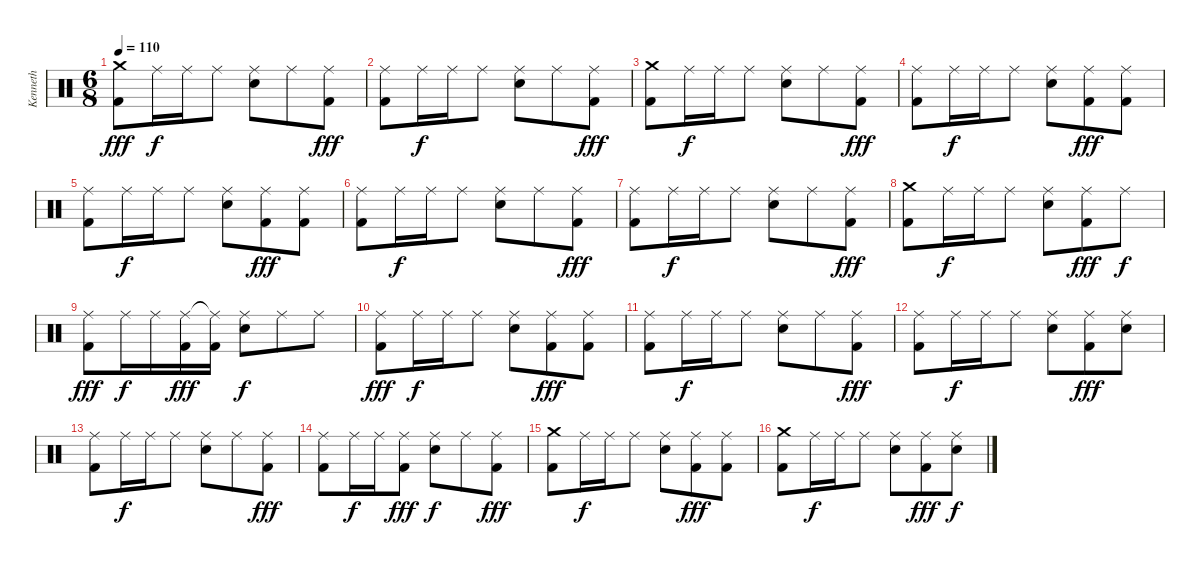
\track ("Kenneth" "Kenneth") {instrument percussion}
\staff {score}
\articulation defaults
\ts (6 8)
\tempo 110
\clef neutral
\ks c
("Crash medium (hit)" "Kick (hit) 2").8{dy fff} "Ride (middle)".16{dy f} "Ride (middle)".16 "Ride (middle)".8 ("Ride (middle)" "Snare (hit) 2").8 "Ride (middle)".8 ("Ride (middle)" "Kick (hit) 2").8{dy fff} |
("Ride (middle)" "Kick (hit) 2").8 "Ride (middle)".16{dy f} "Ride (middle)".16 "Ride (middle)".8 ("Ride (middle)" "Snare (hit) 2").8 "Ride (middle)".8 ("Ride (middle)" "Kick (hit) 2").8{dy fff} |
("Crash medium (hit)" "Kick (hit) 2").8 "Ride (middle)".16{dy f} "Ride (middle)".16 "Ride (middle)".8 ("Ride (middle)" "Snare (hit) 2").8 "Ride (middle)".8 ("Ride (middle)" "Kick (hit) 2").8{dy fff} |
("Ride (middle)" "Kick (hit) 2").8 "Ride (middle)".16{dy f} "Ride (middle)".16 "Ride (middle)".8 ("Ride (middle)" "Snare (hit) 2").8 ("Ride (middle)" "Kick (hit) 2").8{dy fff} ("Ride (middle)" "Kick (hit) 2").8 |
("Ride (middle)" "Kick (hit) 2").8 "Ride (middle)".16{dy f} "Ride (middle)".16 "Ride (middle)".8 ("Ride (middle)" "Snare (hit) 2").8 ("Ride (middle)" "Kick (hit) 2").8{dy fff} ("Ride (middle)" "Kick (hit) 2").8 |
("Ride (middle)" "Kick (hit) 2").8 "Ride (middle)".16{dy f} "Ride (middle)".16 "Ride (middle)".8 ("Ride (middle)" "Snare (hit) 2").8 "Ride (middle)".8 ("Ride (middle)" "Kick (hit) 2").8{dy fff} |
("Ride (middle)" "Kick (hit) 2").8 "Ride (middle)".16{dy f} "Ride (middle)".16 "Ride (middle)".8 ("Ride (middle)" "Snare (hit) 2").8 "Ride (middle)".8 ("Ride (middle)" "Kick (hit) 2").8{dy fff} |
("Crash medium (hit)" "Kick (hit) 2").8 "Ride (middle)".16{dy f} "Ride (middle)".16 "Ride (middle)".8 ("Ride (middle)" "Snare (hit) 2").8 ("Ride (middle)" "Kick (hit) 2").8{dy fff} "Ride (middle)".8{dy f} |
("Ride (middle)" "Kick (hit) 2").8{dy fff} "Ride (middle)".16{dy f} "Ride (middle)".16 ("Ride (middle)" "Kick (hit) 2").16{dy fff} ("Ride (middle)"{t} "Kick (hit) 2").16 ("Ride (middle)" "Snare (hit) 2").8{dy f} "Ride (middle)".8 "Ride (middle)".8 |
("Ride (middle)" "Kick (hit) 2").8{dy fff} "Ride (middle)".16{dy f} "Ride (middle)".16 "Ride (middle)".8 ("Ride (middle)" "Snare (hit) 2").8 ("Ride (middle)" "Kick (hit) 2").8{dy fff} ("Ride (middle)" "Kick (hit) 2").8 |
("Ride (middle)" "Kick (hit) 2").8 "Ride (middle)".16{dy f} "Ride (middle)".16 "Ride (middle)".8 ("Ride (middle)" "Snare (hit) 2").8 "Ride (middle)".8 ("Ride (middle)" "Kick (hit) 2").8{dy fff} |
("Ride (middle)" "Kick (hit) 2").8 "Ride (middle)".16{dy f} "Ride (middle)".16 "Ride (middle)".8 ("Ride (middle)" "Snare (hit) 2").8 ("Ride (middle)" "Kick (hit) 2").8{dy fff} ("Ride (middle)" "Snare (hit) 2").8 |
("Ride (middle)" "Kick (hit) 2").8 "Ride (middle)".16{dy f} "Ride (middle)".16 "Ride (middle)".8 ("Ride (middle)" "Snare (hit) 2").8 "Ride (middle)".8 ("Ride (middle)" "Kick (hit) 2").8{dy fff} |
("Ride (middle)" "Kick (hit) 2").8 "Ride (middle)".16{dy f} "Ride (middle)".16 ("Ride (middle)" "Kick (hit) 2").8{dy fff} ("Ride (middle)" "Snare (hit) 2").8{dy f} "Ride (middle)".8 ("Ride (middle)" "Kick (hit) 2").8{dy fff} |
("Crash medium (hit)" "Kick (hit) 2").8 "Ride (middle)".16{dy f} "Ride (middle)".16 "Ride (middle)".8 ("Ride (middle)" "Snare (hit) 2").8 ("Ride (middle)" "Kick (hit) 2").8{dy fff} ("Ride (middle)" "Kick (hit) 2").8 |
("Crash medium (hit)" "Kick (hit) 2").8 "Ride (middle)".16{dy f} "Ride (middle)".16 "Ride (middle)".8 ("Ride (middle)" "Snare (hit) 2").8 ("Ride (middle)" "Kick (hit) 2").8{dy fff} ("Ride (middle)" "Snare (hit) 2").8{dy f}
